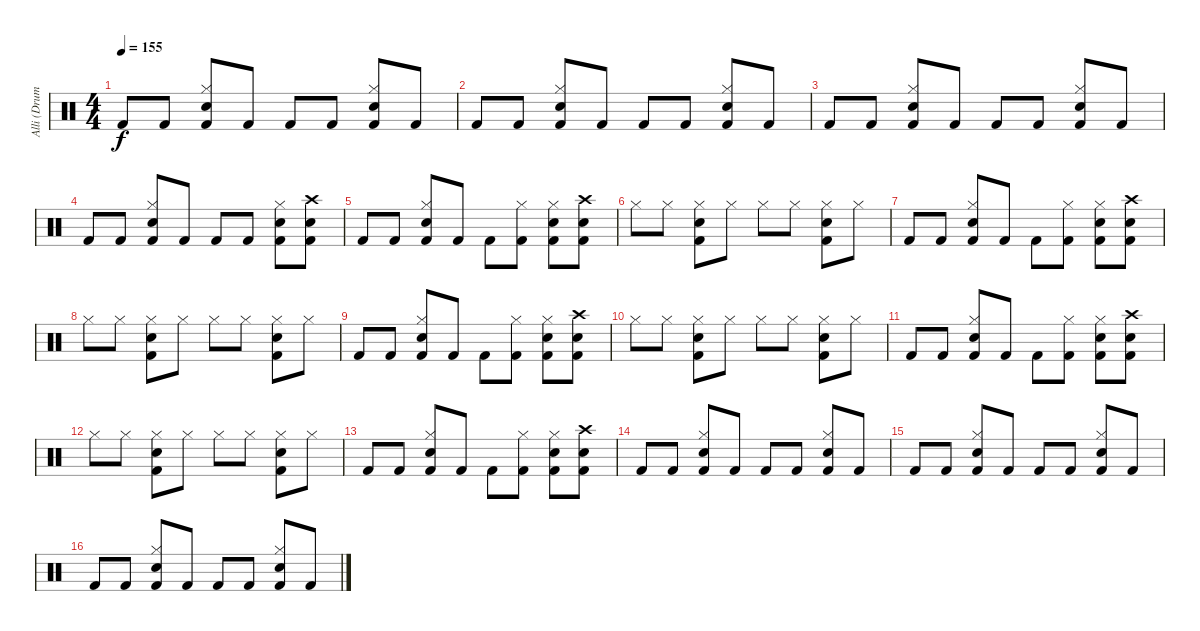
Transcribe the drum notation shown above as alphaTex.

\track ("Alli (Drums)" "Alli (Drum") {instrument percussion}
\staff {score}
\articulation defaults
\ts (4 4)
\tempo 155
\clef neutral
\ks c "Kick (hit) 2".8{dy f} "Kick (hit) 2".8
("Hi-Hat (closed)" "Snare (hit) 2" "Kick (hit) 2").8 "Kick (hit) 2".8 "Kick (hit) 2".8 "Kick (hit) 2".8 ("Hi-Hat (closed)" "Snare (hit) 2" "Kick (hit) 2").8 "Kick (hit) 2".8 |
"Kick (hit) 2".8 "Kick (hit) 2".8 ("Hi-Hat (closed)" "Snare (hit) 2" "Kick (hit) 2").8 "Kick (hit) 2".8 "Kick (hit) 2".8 "Kick (hit) 2".8 ("Hi-Hat (closed)" "Snare (hit) 2" "Kick (hit) 2").8 "Kick (hit) 2".8 |
"Kick (hit) 2".8 "Kick (hit) 2".8 ("Hi-Hat (closed)" "Snare (hit) 2" "Kick (hit) 2").8 "Kick (hit) 2".8 "Kick (hit) 2".8 "Kick (hit) 2".8 ("Hi-Hat (closed)" "Snare (hit) 2" "Kick (hit) 2").8 "Kick (hit) 2".8 |
"Kick (hit) 2".8 "Kick (hit) 2".8 ("Hi-Hat (closed)" "Snare (hit) 2" "Kick (hit) 2").8 "Kick (hit) 2".8 "Kick (hit) 2".8 "Kick (hit) 2".8 ("Hi-Hat (closed)" "Snare (hit) 2" "Kick (hit) 2").8 ("Crash high (hit)" "Snare (hit) 2" "Kick (hit) 2").8 |
"Kick (hit) 2".8 "Kick (hit) 2".8 ("Hi-Hat (closed)" "Snare (hit) 2" "Kick (hit) 2").8 "Kick (hit) 2".8 "Kick (hit) 2".8 ("Hi-Hat (closed)" "Kick (hit) 2").8 ("Hi-Hat (closed)" "Snare (hit) 2" "Kick (hit) 2").8 ("Crash high (hit)" "Snare (hit) 2" "Kick (hit) 2").8 |
"Hi-Hat (closed)".8 "Hi-Hat (closed)".8 ("Snare (hit) 2" "Hi-Hat (closed)" "Kick (hit) 2").8 "Hi-Hat (closed)".8 "Hi-Hat (closed)".8 "Hi-Hat (closed)".8 ("Snare (hit) 2" "Hi-Hat (closed)" "Kick (hit) 2").8 "Hi-Hat (closed)".8 |
"Kick (hit) 2".8 "Kick (hit) 2".8 ("Hi-Hat (closed)" "Snare (hit) 2" "Kick (hit) 2").8 "Kick (hit) 2".8 "Kick (hit) 2".8 ("Hi-Hat (closed)" "Kick (hit) 2").8 ("Hi-Hat (closed)" "Snare (hit) 2" "Kick (hit) 2").8 ("Crash high (hit)" "Snare (hit) 2" "Kick (hit) 2").8 |
"Hi-Hat (closed)".8 "Hi-Hat (closed)".8 ("Snare (hit) 2" "Hi-Hat (closed)" "Kick (hit) 2").8 "Hi-Hat (closed)".8 "Hi-Hat (closed)".8 "Hi-Hat (closed)".8 ("Snare (hit) 2" "Hi-Hat (closed)" "Kick (hit) 2").8 "Hi-Hat (closed)".8 |
"Kick (hit) 2".8 "Kick (hit) 2".8 ("Hi-Hat (closed)" "Snare (hit) 2" "Kick (hit) 2").8 "Kick (hit) 2".8 "Kick (hit) 2".8 ("Hi-Hat (closed)" "Kick (hit) 2").8 ("Hi-Hat (closed)" "Snare (hit) 2" "Kick (hit) 2").8 ("Crash high (hit)" "Snare (hit) 2" "Kick (hit) 2").8 |
"Hi-Hat (closed)".8 "Hi-Hat (closed)".8 ("Snare (hit) 2" "Hi-Hat (closed)" "Kick (hit) 2").8 "Hi-Hat (closed)".8 "Hi-Hat (closed)".8 "Hi-Hat (closed)".8 ("Snare (hit) 2" "Hi-Hat (closed)" "Kick (hit) 2").8 "Hi-Hat (closed)".8 |
"Kick (hit) 2".8 "Kick (hit) 2".8 ("Hi-Hat (closed)" "Snare (hit) 2" "Kick (hit) 2").8 "Kick (hit) 2".8 "Kick (hit) 2".8 ("Hi-Hat (closed)" "Kick (hit) 2").8 ("Hi-Hat (closed)" "Snare (hit) 2" "Kick (hit) 2").8 ("Crash high (hit)" "Snare (hit) 2" "Kick (hit) 2").8 |
"Hi-Hat (closed)".8 "Hi-Hat (closed)".8 ("Snare (hit) 2" "Hi-Hat (closed)" "Kick (hit) 2").8 "Hi-Hat (closed)".8 "Hi-Hat (closed)".8 "Hi-Hat (closed)".8 ("Snare (hit) 2" "Hi-Hat (closed)" "Kick (hit) 2").8 "Hi-Hat (closed)".8 |
"Kick (hit) 2".8 "Kick (hit) 2".8 ("Hi-Hat (closed)" "Snare (hit) 2" "Kick (hit) 2").8 "Kick (hit) 2".8 "Kick (hit) 2".8 ("Hi-Hat (closed)" "Kick (hit) 2").8 ("Hi-Hat (closed)" "Snare (hit) 2" "Kick (hit) 2").8 ("Crash high (hit)" "Snare (hit) 2" "Kick (hit) 2").8 |
"Kick (hit) 2".8 "Kick (hit) 2".8 ("Hi-Hat (closed)" "Snare (hit) 2" "Kick (hit) 2").8 "Kick (hit) 2".8 "Kick (hit) 2".8 "Kick (hit) 2".8 ("Hi-Hat (closed)" "Snare (hit) 2" "Kick (hit) 2").8 "Kick (hit) 2".8 |
"Kick (hit) 2".8 "Kick (hit) 2".8 ("Hi-Hat (closed)" "Snare (hit) 2" "Kick (hit) 2").8 "Kick (hit) 2".8 "Kick (hit) 2".8 "Kick (hit) 2".8 ("Hi-Hat (closed)" "Snare (hit) 2" "Kick (hit) 2").8 "Kick (hit) 2".8 |
"Kick (hit) 2".8 "Kick (hit) 2".8 ("Hi-Hat (closed)" "Snare (hit) 2" "Kick (hit) 2").8 "Kick (hit) 2".8 "Kick (hit) 2".8 "Kick (hit) 2".8 ("Hi-Hat (closed)" "Snare (hit) 2" "Kick (hit) 2").8 "Kick (hit) 2".8
